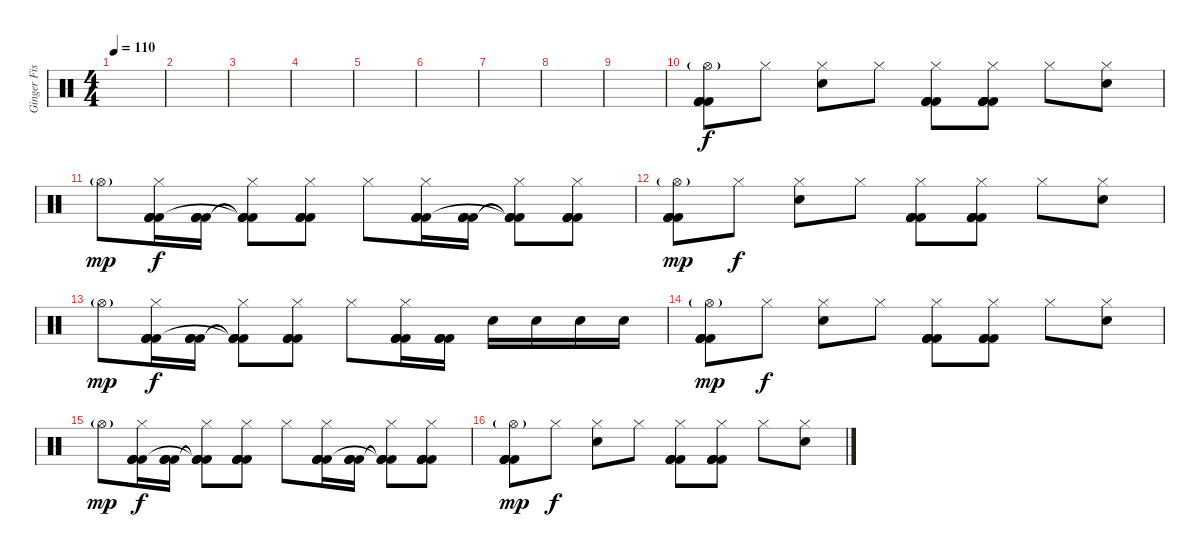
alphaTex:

\track ("Ginger Fish" "Ginger Fis") {instrument percussion}
\staff {score}
\articulation defaults
\ts (4 4)
\tempo 110
\clef neutral
\ks c
|
|
|
|
|
|
|
|
|
("Hi-Hat (open)"{g} "Kick (hit) 2" "Kick (hit) 2" "Kick (hit) 2" "Kick (hit) 2").8 "Hi-Hat (closed)".8{dy f} ("Hi-Hat (closed)" "Electric Snare (hit)").8 "Hi-Hat (closed)".8 ("Hi-Hat (closed)" "Kick (hit) 2" "Kick (hit) 2" "Kick (hit) 2" "Kick (hit) 2").8 ("Hi-Hat (closed)" "Kick (hit) 2" "Kick (hit) 2" "Kick (hit) 2" "Kick (hit) 2").8 "Hi-Hat (closed)".8 ("Hi-Hat (closed)" "Electric Snare (hit)").8 |
"Hi-Hat (open)"{g}.8{dy mp} ("Hi-Hat (closed)" "Kick (hit) 2" "Kick (hit) 2" "Kick (hit) 2" "Kick (hit) 2").16{dy f} ("Kick (hit) 2" "Kick (hit) 2" "Kick (hit) 2" "Kick (hit) 2").16 ("Hi-Hat (closed)" "Kick (hit) 2"{t} "Kick (hit) 2"{t} "Kick (hit) 2"{t} "Kick (hit) 2"{t}).8 ("Hi-Hat (closed)" "Kick (hit) 2" "Kick (hit) 2" "Kick (hit) 2" "Kick (hit) 2").8 "Hi-Hat (closed)".8 ("Hi-Hat (closed)" "Kick (hit) 2" "Kick (hit) 2" "Kick (hit) 2" "Kick (hit) 2").16 ("Kick (hit) 2" "Kick (hit) 2" "Kick (hit) 2" "Kick (hit) 2").16 ("Hi-Hat (closed)" "Kick (hit) 2"{t} "Kick (hit) 2"{t} "Kick (hit) 2"{t} "Kick (hit) 2"{t}).8 ("Hi-Hat (closed)" "Kick (hit) 2" "Kick (hit) 2" "Kick (hit) 2" "Kick (hit) 2").8 |
("Hi-Hat (open)"{g} "Kick (hit) 2" "Kick (hit) 2" "Kick (hit) 2" "Kick (hit) 2").8{dy mp} "Hi-Hat (closed)".8{dy f} ("Hi-Hat (closed)" "Electric Snare (hit)").8 "Hi-Hat (closed)".8 ("Hi-Hat (closed)" "Kick (hit) 2" "Kick (hit) 2" "Kick (hit) 2" "Kick (hit) 2").8 ("Hi-Hat (closed)" "Kick (hit) 2" "Kick (hit) 2" "Kick (hit) 2" "Kick (hit) 2").8 "Hi-Hat (closed)".8 ("Hi-Hat (closed)" "Electric Snare (hit)").8 |
"Hi-Hat (open)"{g}.8{dy mp} ("Hi-Hat (closed)" "Kick (hit) 2" "Kick (hit) 2" "Kick (hit) 2" "Kick (hit) 2").16{dy f} ("Kick (hit) 2" "Kick (hit) 2" "Kick (hit) 2" "Kick (hit) 2").16 ("Hi-Hat (closed)" "Kick (hit) 2"{t} "Kick (hit) 2"{t} "Kick (hit) 2"{t} "Kick (hit) 2"{t}).8 ("Hi-Hat (closed)" "Kick (hit) 2" "Kick (hit) 2" "Kick (hit) 2" "Kick (hit) 2").8 "Hi-Hat (closed)".8 ("Hi-Hat (closed)" "Kick (hit) 2" "Kick (hit) 2" "Kick (hit) 2" "Kick (hit) 2").16 ("Kick (hit) 2" "Kick (hit) 2" "Kick (hit) 2" "Kick (hit) 2").16 "Snare (hit) 2".16 "Snare (hit) 2".16 "Snare (hit) 2".16 "Snare (hit) 2".16 |
("Hi-Hat (open)"{g} "Kick (hit) 2" "Kick (hit) 2" "Kick (hit) 2" "Kick (hit) 2").8{dy mp} "Hi-Hat (closed)".8{dy f} ("Hi-Hat (closed)" "Electric Snare (hit)").8 "Hi-Hat (closed)".8 ("Hi-Hat (closed)" "Kick (hit) 2" "Kick (hit) 2" "Kick (hit) 2" "Kick (hit) 2").8 ("Hi-Hat (closed)" "Kick (hit) 2" "Kick (hit) 2" "Kick (hit) 2" "Kick (hit) 2").8 "Hi-Hat (closed)".8 ("Hi-Hat (closed)" "Electric Snare (hit)").8 |
"Hi-Hat (open)"{g}.8{dy mp} ("Hi-Hat (closed)" "Kick (hit) 2" "Kick (hit) 2" "Kick (hit) 2" "Kick (hit) 2").16{dy f} ("Kick (hit) 2" "Kick (hit) 2" "Kick (hit) 2" "Kick (hit) 2").16 ("Hi-Hat (closed)" "Kick (hit) 2"{t} "Kick (hit) 2"{t} "Kick (hit) 2"{t} "Kick (hit) 2"{t}).8 ("Hi-Hat (closed)" "Kick (hit) 2" "Kick (hit) 2" "Kick (hit) 2" "Kick (hit) 2").8 "Hi-Hat (closed)".8 ("Hi-Hat (closed)" "Kick (hit) 2" "Kick (hit) 2" "Kick (hit) 2" "Kick (hit) 2").16 ("Kick (hit) 2" "Kick (hit) 2" "Kick (hit) 2" "Kick (hit) 2").16 ("Hi-Hat (closed)" "Kick (hit) 2"{t} "Kick (hit) 2"{t} "Kick (hit) 2"{t} "Kick (hit) 2"{t}).8 ("Hi-Hat (closed)" "Kick (hit) 2" "Kick (hit) 2" "Kick (hit) 2" "Kick (hit) 2").8 |
("Hi-Hat (open)"{g} "Kick (hit) 2" "Kick (hit) 2" "Kick (hit) 2" "Kick (hit) 2").8{dy mp} "Hi-Hat (closed)".8{dy f} ("Hi-Hat (closed)" "Electric Snare (hit)").8 "Hi-Hat (closed)".8 ("Hi-Hat (closed)" "Kick (hit) 2" "Kick (hit) 2" "Kick (hit) 2" "Kick (hit) 2").8 ("Hi-Hat (closed)" "Kick (hit) 2" "Kick (hit) 2" "Kick (hit) 2" "Kick (hit) 2").8 "Hi-Hat (closed)".8 ("Hi-Hat (closed)" "Electric Snare (hit)").8
